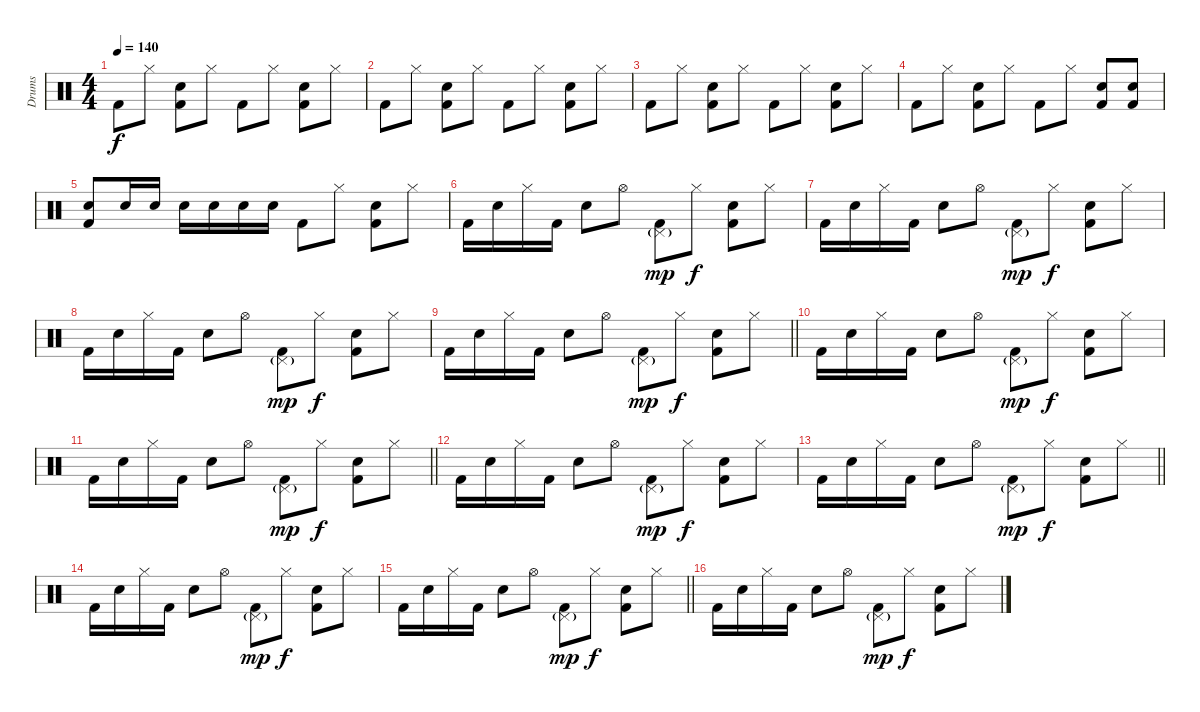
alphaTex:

\track ("Drums" "Drums") {instrument percussion}
\staff {score}
\articulation defaults
\ts (4 4)
\tempo 140
\clef neutral
\ks c "Kick (hit) 2".8{dy f} "Hi-Hat (closed)".8
("Snare (hit) 2" "Kick (hit) 2").8 "Hi-Hat (closed)".8 "Kick (hit) 2".8 "Hi-Hat (closed)".8 ("Snare (hit) 2" "Kick (hit) 2").8 "Hi-Hat (closed)".8 |
"Kick (hit) 2".8 "Hi-Hat (closed)".8 ("Snare (hit) 2" "Kick (hit) 2").8 "Hi-Hat (closed)".8 "Kick (hit) 2".8 "Hi-Hat (closed)".8 ("Snare (hit) 2" "Kick (hit) 2").8 "Hi-Hat (closed)".8 |
"Kick (hit) 2".8 "Hi-Hat (closed)".8 ("Snare (hit) 2" "Kick (hit) 2").8 "Hi-Hat (closed)".8 "Kick (hit) 2".8 "Hi-Hat (closed)".8 ("Snare (hit) 2" "Kick (hit) 2").8 "Hi-Hat (closed)".8 |
"Kick (hit) 2".8 "Hi-Hat (closed)".8 ("Snare (hit) 2" "Kick (hit) 2").8 "Hi-Hat (closed)".8 "Kick (hit) 2".8 "Hi-Hat (closed)".8 ("Snare (hit) 2" "Kick (hit) 2").8 ("Snare (hit) 2" "Kick (hit) 2").8 |
("Snare (hit) 2" "Kick (hit) 2").8 "Snare (hit) 2".16 "Snare (hit) 2".16 "Snare (hit) 2".16 "Snare (hit) 2".16 "Snare (hit) 2".16 "Snare (hit) 2".16 "Kick (hit) 2".8 "Hi-Hat (closed)".8 ("Snare (hit) 2" "Kick (hit) 2").8 "Hi-Hat (closed)".8 |
"Kick (hit) 2".16 "Snare (hit) 2".16 "Hi-Hat (closed)".16 "Kick (hit) 2".16 "Snare (hit) 2".8 "Hi-Hat (open)".8 ("Pedal Hi-Hat (hit)"{g} "Kick (hit) 2").8{dy mp} "Hi-Hat (closed)".8{dy f} ("Snare (hit) 2" "Kick (hit) 2").8 "Hi-Hat (closed)".8 |
"Kick (hit) 2".16 "Snare (hit) 2".16 "Hi-Hat (closed)".16 "Kick (hit) 2".16 "Snare (hit) 2".8 "Hi-Hat (open)".8 ("Pedal Hi-Hat (hit)"{g} "Kick (hit) 2").8{dy mp} "Hi-Hat (closed)".8{dy f} ("Snare (hit) 2" "Kick (hit) 2").8 "Hi-Hat (closed)".8 |
"Kick (hit) 2".16 "Snare (hit) 2".16 "Hi-Hat (closed)".16 "Kick (hit) 2".16 "Snare (hit) 2".8 "Hi-Hat (open)".8 ("Pedal Hi-Hat (hit)"{g} "Kick (hit) 2").8{dy mp} "Hi-Hat (closed)".8{dy f} ("Snare (hit) 2" "Kick (hit) 2").8 "Hi-Hat (closed)".8 |
\barLineRight lightlight "Kick (hit) 2".16 "Snare (hit) 2".16 "Hi-Hat (closed)".16 "Kick (hit) 2".16 "Snare (hit) 2".8 "Hi-Hat (open)".8
("Pedal Hi-Hat (hit)"{g} "Kick (hit) 2").8{dy mp} "Hi-Hat (closed)".8{dy f} ("Snare (hit) 2" "Kick (hit) 2").8 "Hi-Hat (closed)".8 |
"Kick (hit) 2".16 "Snare (hit) 2".16 "Hi-Hat (closed)".16 "Kick (hit) 2".16 "Snare (hit) 2".8 "Hi-Hat (open)".8 ("Pedal Hi-Hat (hit)"{g} "Kick (hit) 2").8{dy mp} "Hi-Hat (closed)".8{dy f} ("Snare (hit) 2" "Kick (hit) 2").8 "Hi-Hat (closed)".8 |
\barLineRight lightlight "Kick (hit) 2".16 "Snare (hit) 2".16 "Hi-Hat (closed)".16 "Kick (hit) 2".16 "Snare (hit) 2".8 "Hi-Hat (open)".8
("Pedal Hi-Hat (hit)"{g} "Kick (hit) 2").8{dy mp} "Hi-Hat (closed)".8{dy f} ("Snare (hit) 2" "Kick (hit) 2").8 "Hi-Hat (closed)".8 |
"Kick (hit) 2".16 "Snare (hit) 2".16 "Hi-Hat (closed)".16 "Kick (hit) 2".16 "Snare (hit) 2".8 "Hi-Hat (open)".8 ("Pedal Hi-Hat (hit)"{g} "Kick (hit) 2").8{dy mp} "Hi-Hat (closed)".8{dy f} ("Snare (hit) 2" "Kick (hit) 2").8 "Hi-Hat (closed)".8 |
\barLineRight lightlight "Kick (hit) 2".16 "Snare (hit) 2".16 "Hi-Hat (closed)".16 "Kick (hit) 2".16 "Snare (hit) 2".8 "Hi-Hat (open)".8
("Pedal Hi-Hat (hit)"{g} "Kick (hit) 2").8{dy mp} "Hi-Hat (closed)".8{dy f} ("Snare (hit) 2" "Kick (hit) 2").8 "Hi-Hat (closed)".8 |
"Kick (hit) 2".16 "Snare (hit) 2".16 "Hi-Hat (closed)".16 "Kick (hit) 2".16 "Snare (hit) 2".8 "Hi-Hat (open)".8 ("Pedal Hi-Hat (hit)"{g} "Kick (hit) 2").8{dy mp} "Hi-Hat (closed)".8{dy f} ("Snare (hit) 2" "Kick (hit) 2").8 "Hi-Hat (closed)".8 |
\barLineRight lightlight "Kick (hit) 2".16 "Snare (hit) 2".16 "Hi-Hat (closed)".16 "Kick (hit) 2".16 "Snare (hit) 2".8 "Hi-Hat (open)".8
("Pedal Hi-Hat (hit)"{g} "Kick (hit) 2").8{dy mp} "Hi-Hat (closed)".8{dy f} ("Snare (hit) 2" "Kick (hit) 2").8 "Hi-Hat (closed)".8 |
"Kick (hit) 2".16 "Snare (hit) 2".16 "Hi-Hat (closed)".16 "Kick (hit) 2".16 "Snare (hit) 2".8 "Hi-Hat (open)".8 ("Pedal Hi-Hat (hit)"{g} "Kick (hit) 2").8{dy mp} "Hi-Hat (closed)".8{dy f} ("Snare (hit) 2" "Kick (hit) 2").8 "Hi-Hat (closed)".8
